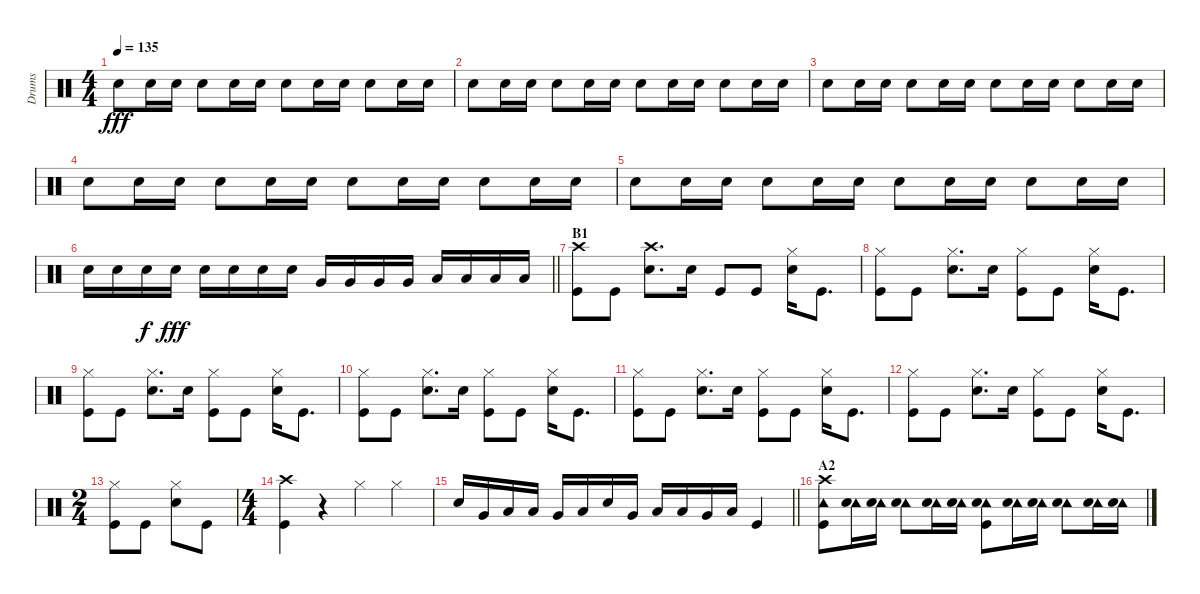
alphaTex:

\track ("Drums" "Drums") {instrument percussion}
\staff {score}
\articulation defaults
\ts (4 4)
\tempo 135
\clef neutral
\ks c "Snare (hit) 2".8{dy fff} "Snare (hit) 2".16 "Snare (hit) 2".16 "Snare (hit) 2".8 "Snare (hit) 2".16 "Snare (hit) 2".16 "Snare (hit) 2".8 "Snare (hit) 2".16 "Snare (hit) 2".16 "Snare (hit) 2".8 "Snare (hit) 2".16 "Snare (hit) 2".16
|
"Snare (hit) 2".8 "Snare (hit) 2".16 "Snare (hit) 2".16 "Snare (hit) 2".8 "Snare (hit) 2".16 "Snare (hit) 2".16 "Snare (hit) 2".8 "Snare (hit) 2".16 "Snare (hit) 2".16 "Snare (hit) 2".8 "Snare (hit) 2".16 "Snare (hit) 2".16 |
"Snare (hit) 2".8 "Snare (hit) 2".16 "Snare (hit) 2".16 "Snare (hit) 2".8 "Snare (hit) 2".16 "Snare (hit) 2".16 "Snare (hit) 2".8 "Snare (hit) 2".16 "Snare (hit) 2".16 "Snare (hit) 2".8 "Snare (hit) 2".16 "Snare (hit) 2".16 |
"Snare (hit) 2".8 "Snare (hit) 2".16 "Snare (hit) 2".16 "Snare (hit) 2".8 "Snare (hit) 2".16 "Snare (hit) 2".16 "Snare (hit) 2".8 "Snare (hit) 2".16 "Snare (hit) 2".16 "Snare (hit) 2".8 "Snare (hit) 2".16 "Snare (hit) 2".16 |
"Snare (hit) 2".8 "Snare (hit) 2".16 "Snare (hit) 2".16 "Snare (hit) 2".8 "Snare (hit) 2".16 "Snare (hit) 2".16 "Snare (hit) 2".8 "Snare (hit) 2".16 "Snare (hit) 2".16 "Snare (hit) 2".8 "Snare (hit) 2".16 "Snare (hit) 2".16 |
\barLineRight lightlight "Snare (hit) 2".16 "Snare (hit) 2".16 "Snare (hit) 2".16{dy f} "Snare (hit) 2".16{dy fff} "Snare (hit) 2".16 "Snare (hit) 2".16 "Snare (hit) 2".16 "Snare (hit) 2".16 "Very Low Tom (hit)".16 "Very Low Tom (hit)".16 "Very Low Tom (hit)".16 "Very Low Tom (hit)".16 "Low Floor Tom (hit)".16 "Low Floor Tom (hit)".16 "Low Floor Tom (hit)".16 "Low Floor Tom (hit)".16
|
\section ("" "B1")
("Crash high (hit)" "Kick (hit)").8 "Kick (hit)".8 ("Crash high (hit)" "Snare (hit) 2").8{d} "Snare (hit) 2".16 "Kick (hit)".8 "Kick (hit)".8 ("Hi-Hat (closed)" "Snare (hit) 2").16 "Kick (hit)".8{d} |
("Hi-Hat (closed)" "Kick (hit)").8 "Kick (hit)".8 ("Hi-Hat (closed)" "Snare (hit) 2").8{d} "Snare (hit) 2".16 ("Hi-Hat (closed)" "Kick (hit)").8 "Kick (hit)".8 ("Hi-Hat (closed)" "Snare (hit) 2").16 "Kick (hit)".8{d} |
("Hi-Hat (closed)" "Kick (hit)").8 "Kick (hit)".8 ("Hi-Hat (closed)" "Snare (hit) 2").8{d} "Snare (hit) 2".16 ("Hi-Hat (closed)" "Kick (hit)").8 "Kick (hit)".8 ("Hi-Hat (closed)" "Snare (hit) 2").16 "Kick (hit)".8{d} |
("Hi-Hat (closed)" "Kick (hit)").8 "Kick (hit)".8 ("Hi-Hat (closed)" "Snare (hit) 2").8{d} "Snare (hit) 2".16 ("Hi-Hat (closed)" "Kick (hit)").8 "Kick (hit)".8 ("Hi-Hat (closed)" "Snare (hit) 2").16 "Kick (hit)".8{d} |
("Hi-Hat (closed)" "Kick (hit)").8 "Kick (hit)".8 ("Hi-Hat (closed)" "Snare (hit) 2").8{d} "Snare (hit) 2".16 ("Hi-Hat (closed)" "Kick (hit)").8 "Kick (hit)".8 ("Hi-Hat (closed)" "Snare (hit) 2").16 "Kick (hit)".8{d} |
("Hi-Hat (closed)" "Kick (hit)").8 "Kick (hit)".8 ("Hi-Hat (closed)" "Snare (hit) 2").8{d} "Snare (hit) 2".16 ("Hi-Hat (closed)" "Kick (hit)").8 "Kick (hit)".8 ("Hi-Hat (closed)" "Snare (hit) 2").16 "Kick (hit)".8{d} |
\ts (2 4)
("Hi-Hat (closed)" "Kick (hit)").8 "Kick (hit)".8 ("Hi-Hat (closed)" "Snare (hit) 2").8 "Kick (hit)".8 |
\ts (4 4)
("Crash high (hit)" "Kick (hit)").4 r.4 "Hi-Hat (closed)".4 "Hi-Hat (closed)".4 |
\barLineRight lightlight "Snare (hit) 2".16 "Very Low Tom (hit)".16 "Low Floor Tom (hit)".16 "Low Floor Tom (hit)".16 "Very Low Tom (hit)".16 "Low Floor Tom (hit)".16 "Snare (hit) 2".16 "Very Low Tom (hit)".16 "Low Floor Tom (hit)".16 "Low Floor Tom (hit)".16 "Very Low Tom (hit)".16 "Low Floor Tom (hit)".16 "Kick (hit)".4
|
\section ("" "A2")
("Crash high (hit)" "Tambourine (hit)" "Kick (hit)").8 ("Tambourine (hit)" "Snare (hit) 2").16 ("Tambourine (hit)" "Snare (hit) 2").16 ("Tambourine (hit)" "Snare (hit) 2").8 ("Tambourine (hit)" "Snare (hit) 2").16 ("Tambourine (hit)" "Snare (hit) 2").16 ("Tambourine (hit)" "Snare (hit) 2" "Kick (hit)").8 ("Tambourine (hit)" "Snare (hit) 2").16 ("Tambourine (hit)" "Snare (hit) 2").16 ("Tambourine (hit)" "Snare (hit) 2").8 ("Tambourine (hit)" "Snare (hit) 2").16 ("Tambourine (hit)" "Snare (hit) 2").16
